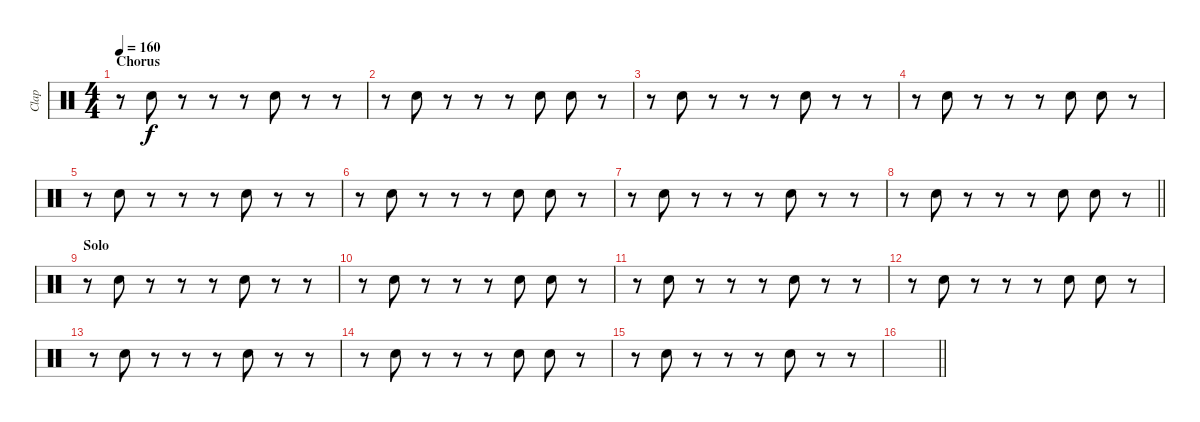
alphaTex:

\track ("Clap" "Clap") {instrument percussion}
\staff {score}
\articulation defaults
\ts (4 4)
\section ("" "Chorus")
\tempo 160
\clef neutral
\ks c
r.8{dy f} "Hand Clap (hit)".8 r.8 r.8 r.8 "Hand Clap (hit)".8 r.8 r.8 |
r.8 "Hand Clap (hit)".8 r.8 r.8 r.8 "Hand Clap (hit)".8 "Hand Clap (hit)".8 r.8 |
r.8 "Hand Clap (hit)".8 r.8 r.8 r.8 "Hand Clap (hit)".8 r.8 r.8 |
r.8 "Hand Clap (hit)".8 r.8 r.8 r.8 "Hand Clap (hit)".8 "Hand Clap (hit)".8 r.8 |
r.8 "Hand Clap (hit)".8 r.8 r.8 r.8 "Hand Clap (hit)".8 r.8 r.8 |
r.8 "Hand Clap (hit)".8 r.8 r.8 r.8 "Hand Clap (hit)".8 "Hand Clap (hit)".8 r.8 |
r.8 "Hand Clap (hit)".8 r.8 r.8 r.8 "Hand Clap (hit)".8 r.8 r.8 |
\barLineRight lightlight
r.8 "Hand Clap (hit)".8 r.8 r.8 r.8 "Hand Clap (hit)".8 "Hand Clap (hit)".8 r.8 |
\section ("" "Solo")
r.8 "Hand Clap (hit)".8 r.8 r.8 r.8 "Hand Clap (hit)".8 r.8 r.8 |
r.8 "Hand Clap (hit)".8 r.8 r.8 r.8 "Hand Clap (hit)".8 "Hand Clap (hit)".8 r.8 |
r.8 "Hand Clap (hit)".8 r.8 r.8 r.8 "Hand Clap (hit)".8 r.8 r.8 |
r.8 "Hand Clap (hit)".8 r.8 r.8 r.8 "Hand Clap (hit)".8 "Hand Clap (hit)".8 r.8 |
r.8 "Hand Clap (hit)".8 r.8 r.8 r.8 "Hand Clap (hit)".8 r.8 r.8 |
r.8 "Hand Clap (hit)".8 r.8 r.8 r.8 "Hand Clap (hit)".8 "Hand Clap (hit)".8 r.8 |
r.8 "Hand Clap (hit)".8 r.8 r.8 r.8 "Hand Clap (hit)".8 r.8 r.8 |
\barLineRight lightlight
